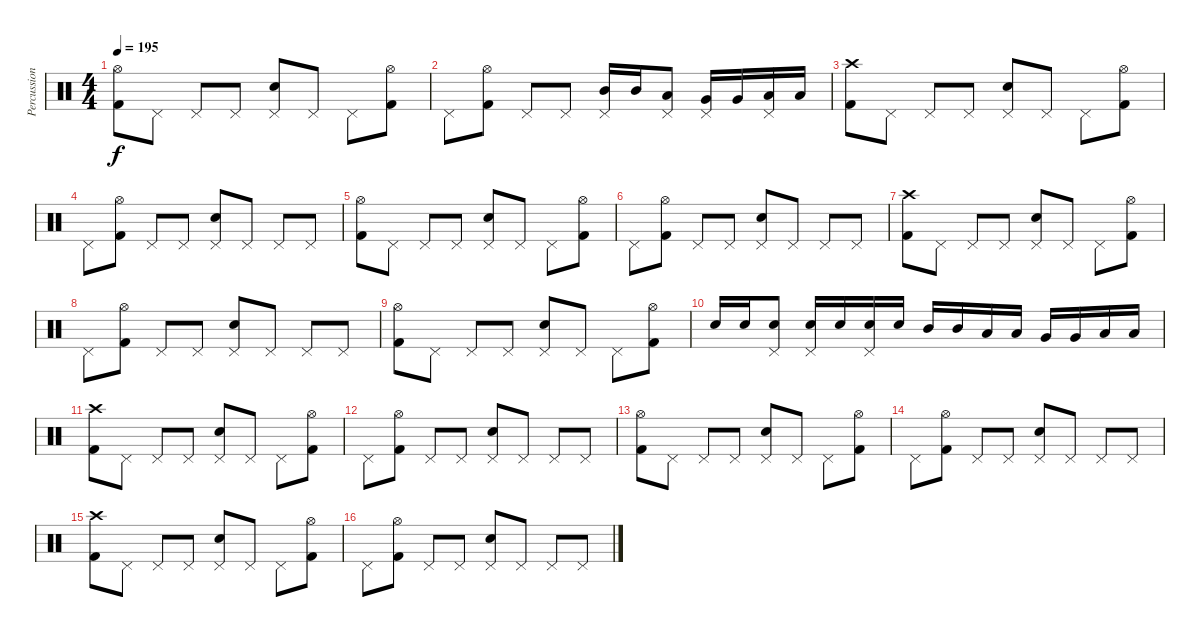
\track ("Percussion" "Percussion") {instrument percussion}
\staff {score}
\articulation defaults
\ts (4 4)
\tempo 195
\clef neutral
\ks c
("Hi-Hat (open)" "Kick (hit) 2").8{dy f} "Pedal Hi-Hat (hit)".8 "Pedal Hi-Hat (hit)".8 "Pedal Hi-Hat (hit)".8 ("Pedal Hi-Hat (hit)" "Electric Snare (hit)").8 "Pedal Hi-Hat (hit)".8 "Pedal Hi-Hat (hit)".8 ("Hi-Hat (open)" "Kick (hit) 2").8 |
"Pedal Hi-Hat (hit)".8 ("Hi-Hat (open)" "Kick (hit) 2").8 "Pedal Hi-Hat (hit)".8 "Pedal Hi-Hat (hit)".8 ("Pedal Hi-Hat (hit)" "Mid Tom (hit)").16 "Mid Tom (hit)".16 ("Pedal Hi-Hat (hit)" "Low Tom (hit)").8 ("Pedal Hi-Hat (hit)" "Very Low Tom (hit)").16 "Very Low Tom (hit)".16 ("Pedal Hi-Hat (hit)" "Low Floor Tom (hit)").16 "Low Floor Tom (hit)".16 |
("Crash high (hit)" "Kick (hit) 2").8 "Pedal Hi-Hat (hit)".8 "Pedal Hi-Hat (hit)".8 "Pedal Hi-Hat (hit)".8 ("Pedal Hi-Hat (hit)" "Electric Snare (hit)").8 "Pedal Hi-Hat (hit)".8 "Pedal Hi-Hat (hit)".8 ("Hi-Hat (open)" "Kick (hit) 2").8 |
"Pedal Hi-Hat (hit)".8 ("Hi-Hat (open)" "Kick (hit) 2").8 "Pedal Hi-Hat (hit)".8 "Pedal Hi-Hat (hit)".8 ("Pedal Hi-Hat (hit)" "Electric Snare (hit)").8 "Pedal Hi-Hat (hit)".8 "Pedal Hi-Hat (hit)".8 "Pedal Hi-Hat (hit)".8 |
("Hi-Hat (open)" "Kick (hit) 2").8 "Pedal Hi-Hat (hit)".8 "Pedal Hi-Hat (hit)".8 "Pedal Hi-Hat (hit)".8 ("Pedal Hi-Hat (hit)" "Electric Snare (hit)").8 "Pedal Hi-Hat (hit)".8 "Pedal Hi-Hat (hit)".8 ("Hi-Hat (open)" "Kick (hit) 2").8 |
"Pedal Hi-Hat (hit)".8 ("Hi-Hat (open)" "Kick (hit) 2").8 "Pedal Hi-Hat (hit)".8 "Pedal Hi-Hat (hit)".8 ("Pedal Hi-Hat (hit)" "Electric Snare (hit)").8 "Pedal Hi-Hat (hit)".8 "Pedal Hi-Hat (hit)".8 "Pedal Hi-Hat (hit)".8 |
("Crash high (hit)" "Kick (hit) 2").8 "Pedal Hi-Hat (hit)".8 "Pedal Hi-Hat (hit)".8 "Pedal Hi-Hat (hit)".8 ("Pedal Hi-Hat (hit)" "Electric Snare (hit)").8 "Pedal Hi-Hat (hit)".8 "Pedal Hi-Hat (hit)".8 ("Hi-Hat (open)" "Kick (hit) 2").8 |
"Pedal Hi-Hat (hit)".8 ("Hi-Hat (open)" "Kick (hit) 2").8 "Pedal Hi-Hat (hit)".8 "Pedal Hi-Hat (hit)".8 ("Pedal Hi-Hat (hit)" "Electric Snare (hit)").8 "Pedal Hi-Hat (hit)".8 "Pedal Hi-Hat (hit)".8 "Pedal Hi-Hat (hit)".8 |
("Hi-Hat (open)" "Kick (hit) 2").8 "Pedal Hi-Hat (hit)".8 "Pedal Hi-Hat (hit)".8 "Pedal Hi-Hat (hit)".8 ("Pedal Hi-Hat (hit)" "Electric Snare (hit)").8 "Pedal Hi-Hat (hit)".8 "Pedal Hi-Hat (hit)".8 ("Hi-Hat (open)" "Kick (hit) 2").8 |
"Electric Snare (hit)".16 "Electric Snare (hit)".16 ("Pedal Hi-Hat (hit)" "Electric Snare (hit)").8 ("Pedal Hi-Hat (hit)" "Electric Snare (hit)").16 "Electric Snare (hit)".16 ("Pedal Hi-Hat (hit)" "Electric Snare (hit)").16 "Electric Snare (hit)".16 "Mid Tom (hit)".16 "Mid Tom (hit)".16 "Low Tom (hit)".16 "Low Tom (hit)".16 "Very Low Tom (hit)".16 "Very Low Tom (hit)".16 "Low Floor Tom (hit)".16 "Low Floor Tom (hit)".16 |
("Crash high (hit)" "Kick (hit) 2").8 "Pedal Hi-Hat (hit)".8 "Pedal Hi-Hat (hit)".8 "Pedal Hi-Hat (hit)".8 ("Pedal Hi-Hat (hit)" "Electric Snare (hit)").8 "Pedal Hi-Hat (hit)".8 "Pedal Hi-Hat (hit)".8 ("Hi-Hat (open)" "Kick (hit) 2").8 |
"Pedal Hi-Hat (hit)".8 ("Hi-Hat (open)" "Kick (hit) 2").8 "Pedal Hi-Hat (hit)".8 "Pedal Hi-Hat (hit)".8 ("Pedal Hi-Hat (hit)" "Electric Snare (hit)").8 "Pedal Hi-Hat (hit)".8 "Pedal Hi-Hat (hit)".8 "Pedal Hi-Hat (hit)".8 |
("Hi-Hat (open)" "Kick (hit) 2").8 "Pedal Hi-Hat (hit)".8 "Pedal Hi-Hat (hit)".8 "Pedal Hi-Hat (hit)".8 ("Pedal Hi-Hat (hit)" "Electric Snare (hit)").8 "Pedal Hi-Hat (hit)".8 "Pedal Hi-Hat (hit)".8 ("Hi-Hat (open)" "Kick (hit) 2").8 |
"Pedal Hi-Hat (hit)".8 ("Hi-Hat (open)" "Kick (hit) 2").8 "Pedal Hi-Hat (hit)".8 "Pedal Hi-Hat (hit)".8 ("Pedal Hi-Hat (hit)" "Electric Snare (hit)").8 "Pedal Hi-Hat (hit)".8 "Pedal Hi-Hat (hit)".8 "Pedal Hi-Hat (hit)".8 |
("Crash high (hit)" "Kick (hit) 2").8 "Pedal Hi-Hat (hit)".8 "Pedal Hi-Hat (hit)".8 "Pedal Hi-Hat (hit)".8 ("Pedal Hi-Hat (hit)" "Electric Snare (hit)").8 "Pedal Hi-Hat (hit)".8 "Pedal Hi-Hat (hit)".8 ("Hi-Hat (open)" "Kick (hit) 2").8 |
"Pedal Hi-Hat (hit)".8 ("Hi-Hat (open)" "Kick (hit) 2").8 "Pedal Hi-Hat (hit)".8 "Pedal Hi-Hat (hit)".8 ("Pedal Hi-Hat (hit)" "Electric Snare (hit)").8 "Pedal Hi-Hat (hit)".8 "Pedal Hi-Hat (hit)".8 "Pedal Hi-Hat (hit)".8
